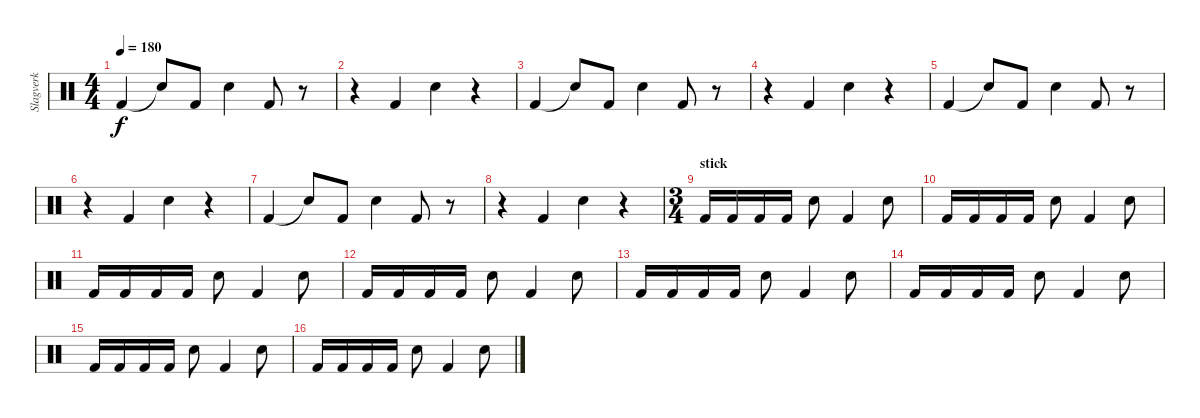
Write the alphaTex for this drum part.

\track ("Slagverk" "Slagverk") {instrument percussion}
\staff {score}
\articulation defaults
\ts (4 4)
\tempo 180
\clef neutral
\ks c "Kick (hit) 2".4{dy f} "Snare (hit)"{t}.8 "Kick (hit) 2".8 "Electric Snare (hit)".4 "Kick (hit) 2".8
r.8 |
r.4 "Kick (hit) 2".4 "Electric Snare (hit)".4 r.4 |
"Kick (hit) 2".4 "Snare (hit)"{t}.8 "Kick (hit) 2".8 "Electric Snare (hit)".4 "Kick (hit) 2".8 r.8 |
r.4 "Kick (hit) 2".4 "Electric Snare (hit)".4 r.4 |
"Kick (hit) 2".4 "Snare (hit)"{t}.8 "Kick (hit) 2".8 "Electric Snare (hit)".4 "Kick (hit) 2".8 r.8 |
r.4 "Kick (hit) 2".4 "Electric Snare (hit)".4 r.4 |
"Kick (hit) 2".4 "Snare (hit)"{t}.8 "Kick (hit) 2".8 "Electric Snare (hit)".4 "Kick (hit) 2".8 r.8 |
r.4 "Kick (hit) 2".4 "Electric Snare (hit)".4 r.4 |
\ts (3 4)
\section ("" "stick")
"Kick (hit) 2".16 "Kick (hit) 2".16 "Kick (hit) 2".16 "Kick (hit) 2".16 "Electric Snare (hit)".8 "Kick (hit) 2".4 "Electric Snare (hit)".8 |
"Kick (hit) 2".16 "Kick (hit) 2".16 "Kick (hit) 2".16 "Kick (hit) 2".16 "Electric Snare (hit)".8 "Kick (hit) 2".4 "Electric Snare (hit)".8 |
"Kick (hit) 2".16 "Kick (hit) 2".16 "Kick (hit) 2".16 "Kick (hit) 2".16 "Electric Snare (hit)".8 "Kick (hit) 2".4 "Electric Snare (hit)".8 |
"Kick (hit) 2".16 "Kick (hit) 2".16 "Kick (hit) 2".16 "Kick (hit) 2".16 "Electric Snare (hit)".8 "Kick (hit) 2".4 "Electric Snare (hit)".8 |
"Kick (hit) 2".16 "Kick (hit) 2".16 "Kick (hit) 2".16 "Kick (hit) 2".16 "Electric Snare (hit)".8 "Kick (hit) 2".4 "Electric Snare (hit)".8 |
"Kick (hit) 2".16 "Kick (hit) 2".16 "Kick (hit) 2".16 "Kick (hit) 2".16 "Electric Snare (hit)".8 "Kick (hit) 2".4 "Electric Snare (hit)".8 |
"Kick (hit) 2".16 "Kick (hit) 2".16 "Kick (hit) 2".16 "Kick (hit) 2".16 "Electric Snare (hit)".8 "Kick (hit) 2".4 "Electric Snare (hit)".8 |
"Kick (hit) 2".16 "Kick (hit) 2".16 "Kick (hit) 2".16 "Kick (hit) 2".16 "Electric Snare (hit)".8 "Kick (hit) 2".4 "Electric Snare (hit)".8
